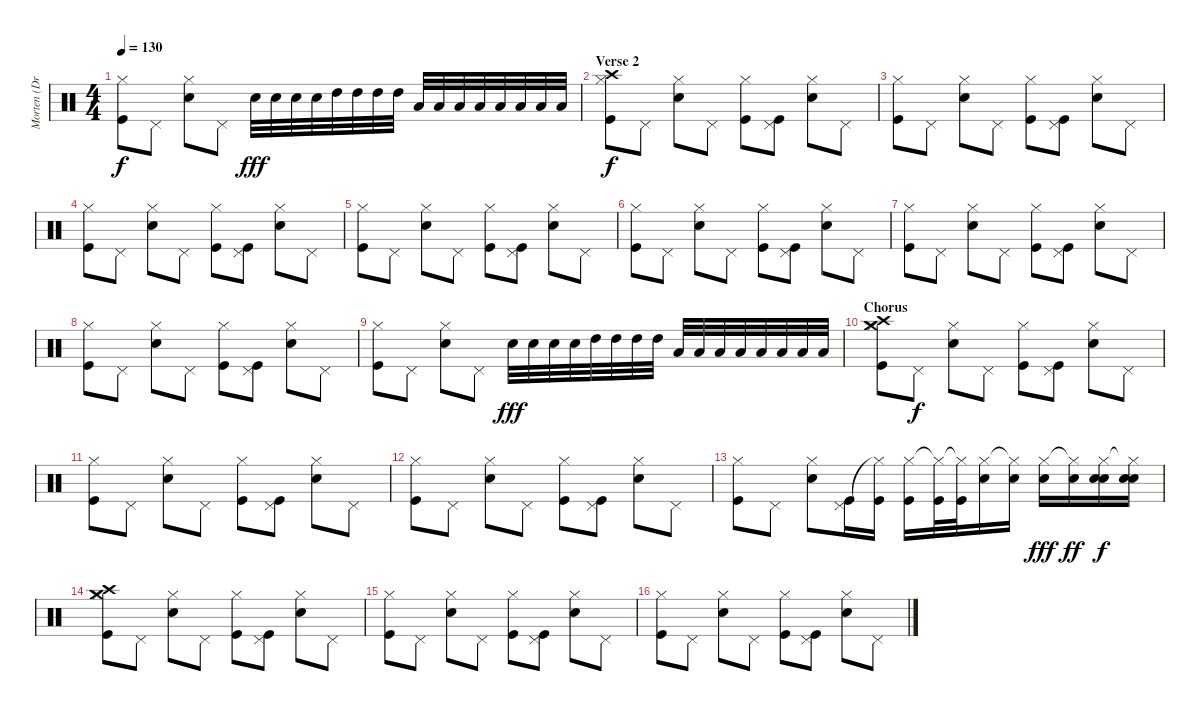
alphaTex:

\track ("Morten (Drums)" "Morten (Dr") {instrument percussion}
\staff {score}
\articulation defaults
\ts (4 4)
\tempo 130
\clef neutral
\ks c
("Hi-Hat (closed)" "Kick (hit)").8{dy f} "Pedal Hi-Hat (hit)".8 ("Hi-Hat (closed)" "Snare (hit) 2").8 "Pedal Hi-Hat (hit)".8 "Snare (hit) 2".32{dy fff} "Snare (hit) 2".32 "Snare (hit) 2".32 "Snare (hit) 2".32 "High Tom (hit)".32 "High Tom (hit)".32 "High Tom (hit)".32 "High Tom (hit)".32 "Low Tom (hit)".32 "Low Tom (hit)".32 "Low Tom (hit)".32 "Low Tom (hit)".32 "Low Floor Tom (hit)".32 "Low Floor Tom (hit)".32 "Low Floor Tom (hit)".32 "Low Floor Tom (hit)".32 |
\section ("" "Verse 2")
("Hi-Hat (closed)" "Kick (hit)" "Crash high (hit)").8{dy f} "Pedal Hi-Hat (hit)".8 ("Hi-Hat (closed)" "Snare (hit) 2").8 "Pedal Hi-Hat (hit)".8 ("Hi-Hat (closed)" "Kick (hit)").8 ("Pedal Hi-Hat (hit)" "Kick (hit)").8 ("Hi-Hat (closed)" "Snare (hit) 2").8 "Pedal Hi-Hat (hit)".8 |
("Hi-Hat (closed)" "Kick (hit)").8 "Pedal Hi-Hat (hit)".8 ("Hi-Hat (closed)" "Snare (hit) 2").8 "Pedal Hi-Hat (hit)".8 ("Hi-Hat (closed)" "Kick (hit)").8 ("Pedal Hi-Hat (hit)" "Kick (hit)").8 ("Hi-Hat (closed)" "Snare (hit) 2").8 "Pedal Hi-Hat (hit)".8 |
("Hi-Hat (closed)" "Kick (hit)").8 "Pedal Hi-Hat (hit)".8 ("Hi-Hat (closed)" "Snare (hit) 2").8 "Pedal Hi-Hat (hit)".8 ("Hi-Hat (closed)" "Kick (hit)").8 ("Pedal Hi-Hat (hit)" "Kick (hit)").8 ("Hi-Hat (closed)" "Snare (hit) 2").8 "Pedal Hi-Hat (hit)".8 |
("Hi-Hat (closed)" "Kick (hit)").8 "Pedal Hi-Hat (hit)".8 ("Hi-Hat (closed)" "Snare (hit) 2").8 "Pedal Hi-Hat (hit)".8 ("Hi-Hat (closed)" "Kick (hit)").8 ("Pedal Hi-Hat (hit)" "Kick (hit)").8 ("Hi-Hat (closed)" "Snare (hit) 2").8 "Pedal Hi-Hat (hit)".8 |
("Hi-Hat (closed)" "Kick (hit)").8 "Pedal Hi-Hat (hit)".8 ("Hi-Hat (closed)" "Snare (hit) 2").8 "Pedal Hi-Hat (hit)".8 ("Hi-Hat (closed)" "Kick (hit)").8 ("Pedal Hi-Hat (hit)" "Kick (hit)").8 ("Hi-Hat (closed)" "Snare (hit) 2").8 "Pedal Hi-Hat (hit)".8 |
("Hi-Hat (closed)" "Kick (hit)").8 "Pedal Hi-Hat (hit)".8 ("Hi-Hat (closed)" "Snare (hit) 2").8 "Pedal Hi-Hat (hit)".8 ("Hi-Hat (closed)" "Kick (hit)").8 ("Pedal Hi-Hat (hit)" "Kick (hit)").8 ("Hi-Hat (closed)" "Snare (hit) 2").8 "Pedal Hi-Hat (hit)".8 |
("Hi-Hat (closed)" "Kick (hit)").8 "Pedal Hi-Hat (hit)".8 ("Hi-Hat (closed)" "Snare (hit) 2").8 "Pedal Hi-Hat (hit)".8 ("Hi-Hat (closed)" "Kick (hit)").8 ("Pedal Hi-Hat (hit)" "Kick (hit)").8 ("Hi-Hat (closed)" "Snare (hit) 2").8 "Pedal Hi-Hat (hit)".8 |
("Hi-Hat (closed)" "Kick (hit)").8 "Pedal Hi-Hat (hit)".8 ("Hi-Hat (closed)" "Snare (hit) 2").8 "Pedal Hi-Hat (hit)".8 "Snare (hit) 2".32{dy fff} "Snare (hit) 2".32 "Snare (hit) 2".32 "Snare (hit) 2".32 "High Tom (hit)".32 "High Tom (hit)".32 "High Tom (hit)".32 "High Tom (hit)".32 "Low Tom (hit)".32 "Low Tom (hit)".32 "Low Tom (hit)".32 "Low Tom (hit)".32 "Low Floor Tom (hit)".32 "Low Floor Tom (hit)".32 "Low Floor Tom (hit)".32 "Low Floor Tom (hit)".32 |
\section ("" "Chorus")
("Hi-Hat (closed)" "Kick (hit)" "Crash high (hit)" "Crash medium (hit)").8 "Pedal Hi-Hat (hit)".8{dy f} ("Hi-Hat (closed)" "Snare (hit) 2").8 "Pedal Hi-Hat (hit)".8 ("Hi-Hat (closed)" "Kick (hit)").8 ("Pedal Hi-Hat (hit)" "Kick (hit)").8 ("Hi-Hat (closed)" "Snare (hit) 2").8 "Pedal Hi-Hat (hit)".8 |
("Hi-Hat (closed)" "Kick (hit)").8 "Pedal Hi-Hat (hit)".8 ("Hi-Hat (closed)" "Snare (hit) 2").8 "Pedal Hi-Hat (hit)".8 ("Hi-Hat (closed)" "Kick (hit)").8 ("Pedal Hi-Hat (hit)" "Kick (hit)").8 ("Hi-Hat (closed)" "Snare (hit) 2").8 "Pedal Hi-Hat (hit)".8 |
("Hi-Hat (closed)" "Kick (hit)").8 "Pedal Hi-Hat (hit)".8 ("Hi-Hat (closed)" "Snare (hit) 2").8 "Pedal Hi-Hat (hit)".8 ("Hi-Hat (closed)" "Kick (hit)").8 ("Pedal Hi-Hat (hit)" "Kick (hit)").8 ("Hi-Hat (closed)" "Snare (hit) 2").8 "Pedal Hi-Hat (hit)".8 |
("Hi-Hat (closed)" "Kick (hit)").8 "Pedal Hi-Hat (hit)".8 ("Hi-Hat (closed)" "Snare (hit) 2").8 ("Pedal Hi-Hat (hit)" "Kick (hit)").16 ("Hi-Hat (closed)"{t} "Kick (hit)").16 ("Hi-Hat (closed)" "Kick (hit)").16 ("Hi-Hat (closed)"{t} "Kick (hit)").32 ("Hi-Hat (closed)"{t} "Kick (hit)").32 ("Hi-Hat (closed)" "Snare (hit) 2").16 ("Hi-Hat (closed)"{t} "Snare (hit) 2").16 ("Hi-Hat (closed)" "Snare (hit) 2").16{dy fff} ("Hi-Hat (closed)"{t} "Snare (hit) 2").16{dy ff} ("Hi-Hat (closed)" "Snare (hit) 2" "Snare (hit) 2").16{dy f} ("Hi-Hat (closed)"{t} "Snare (hit) 2" "Snare (hit) 2").16 |
("Hi-Hat (closed)" "Kick (hit)" "Crash high (hit)" "Crash medium (hit)").8 "Pedal Hi-Hat (hit)".8 ("Hi-Hat (closed)" "Snare (hit) 2").8 "Pedal Hi-Hat (hit)".8 ("Hi-Hat (closed)" "Kick (hit)").8 ("Pedal Hi-Hat (hit)" "Kick (hit)").8 ("Hi-Hat (closed)" "Snare (hit) 2").8 "Pedal Hi-Hat (hit)".8 |
("Hi-Hat (closed)" "Kick (hit)").8 "Pedal Hi-Hat (hit)".8 ("Hi-Hat (closed)" "Snare (hit) 2").8 "Pedal Hi-Hat (hit)".8 ("Hi-Hat (closed)" "Kick (hit)").8 ("Pedal Hi-Hat (hit)" "Kick (hit)").8 ("Hi-Hat (closed)" "Snare (hit) 2").8 "Pedal Hi-Hat (hit)".8 |
("Hi-Hat (closed)" "Kick (hit)").8 "Pedal Hi-Hat (hit)".8 ("Hi-Hat (closed)" "Snare (hit) 2").8 "Pedal Hi-Hat (hit)".8 ("Hi-Hat (closed)" "Kick (hit)").8 ("Pedal Hi-Hat (hit)" "Kick (hit)").8 ("Hi-Hat (closed)" "Snare (hit) 2").8 "Pedal Hi-Hat (hit)".8
